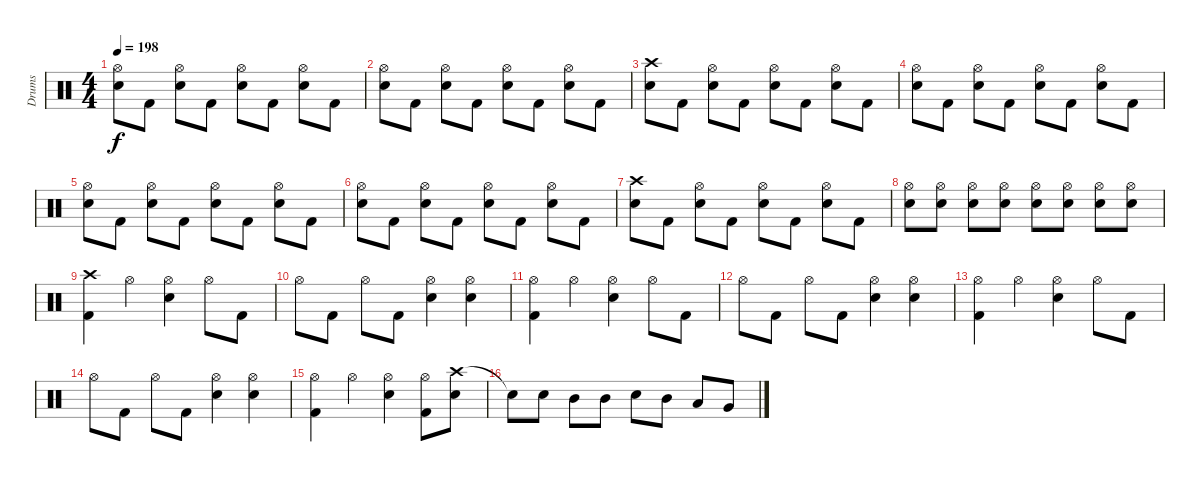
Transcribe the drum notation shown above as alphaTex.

\track ("Drums" "Drums") {instrument percussion}
\staff {score}
\articulation defaults
\ts (4 4)
\tempo 198
\clef neutral
\ks c
("Hi-Hat (open)" "Snare (hit) 2").8{dy f} "Kick (hit) 2".8 ("Hi-Hat (open)" "Snare (hit) 2").8 "Kick (hit) 2".8 ("Hi-Hat (open)" "Snare (hit) 2").8 "Kick (hit) 2".8 ("Hi-Hat (open)" "Snare (hit) 2").8 "Kick (hit) 2".8 |
("Hi-Hat (open)" "Snare (hit) 2").8 "Kick (hit) 2".8 ("Hi-Hat (open)" "Snare (hit) 2").8 "Kick (hit) 2".8 ("Hi-Hat (open)" "Snare (hit) 2").8 "Kick (hit) 2".8 ("Hi-Hat (open)" "Snare (hit) 2").8 "Kick (hit) 2".8 |
("Crash high (hit)" "Snare (hit) 2").8 "Kick (hit) 2".8 ("Hi-Hat (open)" "Snare (hit) 2").8 "Kick (hit) 2".8 ("Hi-Hat (open)" "Snare (hit) 2").8 "Kick (hit) 2".8 ("Hi-Hat (open)" "Snare (hit) 2").8 "Kick (hit) 2".8 |
("Hi-Hat (open)" "Snare (hit) 2").8 "Kick (hit) 2".8 ("Hi-Hat (open)" "Snare (hit) 2").8 "Kick (hit) 2".8 ("Hi-Hat (open)" "Snare (hit) 2").8 "Kick (hit) 2".8 ("Hi-Hat (open)" "Snare (hit) 2").8 "Kick (hit) 2".8 |
("Hi-Hat (open)" "Snare (hit) 2").8 "Kick (hit) 2".8 ("Hi-Hat (open)" "Snare (hit) 2").8 "Kick (hit) 2".8 ("Hi-Hat (open)" "Snare (hit) 2").8 "Kick (hit) 2".8 ("Hi-Hat (open)" "Snare (hit) 2").8 "Kick (hit) 2".8 |
("Hi-Hat (open)" "Snare (hit) 2").8 "Kick (hit) 2".8 ("Hi-Hat (open)" "Snare (hit) 2").8 "Kick (hit) 2".8 ("Hi-Hat (open)" "Snare (hit) 2").8 "Kick (hit) 2".8 ("Hi-Hat (open)" "Snare (hit) 2").8 "Kick (hit) 2".8 |
("Crash high (hit)" "Snare (hit) 2").8 "Kick (hit) 2".8 ("Hi-Hat (open)" "Snare (hit) 2").8 "Kick (hit) 2".8 ("Hi-Hat (open)" "Snare (hit) 2").8 "Kick (hit) 2".8 ("Hi-Hat (open)" "Snare (hit) 2").8 "Kick (hit) 2".8 |
("Hi-Hat (open)" "Snare (hit) 2").8 ("Hi-Hat (open)" "Snare (hit) 2").8 ("Hi-Hat (open)" "Snare (hit) 2").8 ("Hi-Hat (open)" "Snare (hit) 2").8 ("Hi-Hat (open)" "Snare (hit) 2").8 ("Hi-Hat (open)" "Snare (hit) 2").8 ("Hi-Hat (open)" "Snare (hit) 2").8 ("Hi-Hat (open)" "Snare (hit) 2").8 |
("Crash high (hit)" "Kick (hit) 2").4 "Hi-Hat (open)".4 ("Hi-Hat (open)" "Snare (hit) 2").4 "Hi-Hat (open)".8 "Kick (hit) 2".8 |
"Hi-Hat (open)".8 "Kick (hit) 2".8 "Hi-Hat (open)".8 "Kick (hit) 2".8 ("Hi-Hat (open)" "Snare (hit) 2").4 ("Hi-Hat (open)" "Snare (hit) 2").4 |
("Hi-Hat (open)" "Kick (hit) 2").4 "Hi-Hat (open)".4 ("Hi-Hat (open)" "Snare (hit) 2").4 "Hi-Hat (open)".8 "Kick (hit) 2".8 |
"Hi-Hat (open)".8 "Kick (hit) 2".8 "Hi-Hat (open)".8 "Kick (hit) 2".8 ("Hi-Hat (open)" "Snare (hit) 2").4 ("Hi-Hat (open)" "Snare (hit) 2").4 |
("Hi-Hat (open)" "Kick (hit) 2").4 "Hi-Hat (open)".4 ("Hi-Hat (open)" "Snare (hit) 2").4 "Hi-Hat (open)".8 "Kick (hit) 2".8 |
"Hi-Hat (open)".8 "Kick (hit) 2".8 "Hi-Hat (open)".8 "Kick (hit) 2".8 ("Hi-Hat (open)" "Snare (hit) 2").4 ("Hi-Hat (open)" "Snare (hit) 2").4 |
("Hi-Hat (open)" "Kick (hit) 2").4 "Hi-Hat (open)".4 ("Hi-Hat (open)" "Snare (hit) 2").4 ("Hi-Hat (open)" "Kick (hit) 2").8 ("Crash high (hit)" "Snare (hit) 2").8 |
"Snare (hit)"{t}.8 "Snare (hit) 2".8 "Mid Tom (hit)".8 "Mid Tom (hit)".8 "Snare (hit) 2".8 "Mid Tom (hit)".8 "Low Tom (hit)".8 "Very Low Tom (hit)".8
